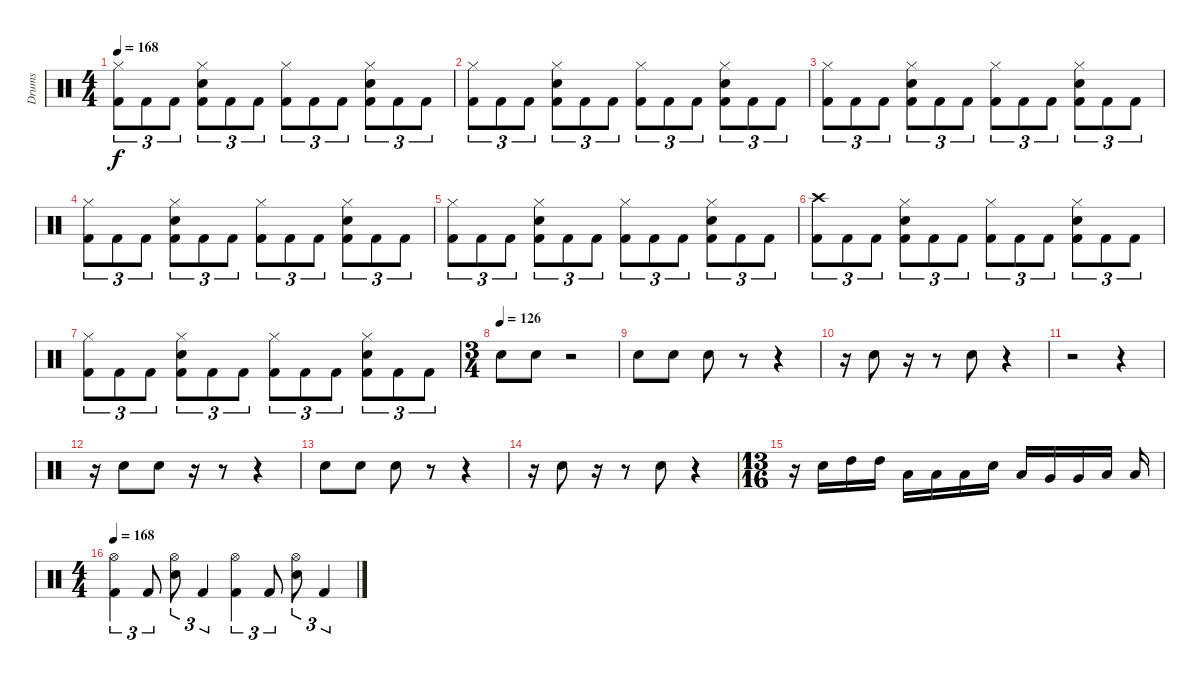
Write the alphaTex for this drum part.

\track ("Drums" "Drums") {instrument percussion}
\staff {score}
\articulation defaults
\ts (4 4)
\tempo 168
\clef neutral
\ks c
("Hi-Hat (closed)" "Kick (hit) 2").8{tu (3 2) dy f} "Kick (hit) 2".8{tu (3 2)} "Kick (hit) 2".8{tu (3 2)} ("Hi-Hat (closed)" "Electric Snare (hit)" "Kick (hit) 2").8{tu (3 2)} "Kick (hit) 2".8{tu (3 2)} "Kick (hit) 2".8{tu (3 2)} ("Hi-Hat (closed)" "Kick (hit) 2").8{tu (3 2)} "Kick (hit) 2".8{tu (3 2)} "Kick (hit) 2".8{tu (3 2)} ("Hi-Hat (closed)" "Electric Snare (hit)" "Kick (hit) 2").8{tu (3 2)} "Kick (hit) 2".8{tu (3 2)} "Kick (hit) 2".8{tu (3 2)} |
("Hi-Hat (closed)" "Kick (hit) 2").8{tu (3 2)} "Kick (hit) 2".8{tu (3 2)} "Kick (hit) 2".8{tu (3 2)} ("Hi-Hat (closed)" "Electric Snare (hit)" "Kick (hit) 2").8{tu (3 2)} "Kick (hit) 2".8{tu (3 2)} "Kick (hit) 2".8{tu (3 2)} ("Hi-Hat (closed)" "Kick (hit) 2").8{tu (3 2)} "Kick (hit) 2".8{tu (3 2)} "Kick (hit) 2".8{tu (3 2)} ("Hi-Hat (closed)" "Electric Snare (hit)" "Kick (hit) 2").8{tu (3 2)} "Kick (hit) 2".8{tu (3 2)} "Kick (hit) 2".8{tu (3 2)} |
("Hi-Hat (closed)" "Kick (hit) 2").8{tu (3 2)} "Kick (hit) 2".8{tu (3 2)} "Kick (hit) 2".8{tu (3 2)} ("Hi-Hat (closed)" "Electric Snare (hit)" "Kick (hit) 2").8{tu (3 2)} "Kick (hit) 2".8{tu (3 2)} "Kick (hit) 2".8{tu (3 2)} ("Hi-Hat (closed)" "Kick (hit) 2").8{tu (3 2)} "Kick (hit) 2".8{tu (3 2)} "Kick (hit) 2".8{tu (3 2)} ("Hi-Hat (closed)" "Electric Snare (hit)" "Kick (hit) 2").8{tu (3 2)} "Kick (hit) 2".8{tu (3 2)} "Kick (hit) 2".8{tu (3 2)} |
("Hi-Hat (closed)" "Kick (hit) 2").8{tu (3 2)} "Kick (hit) 2".8{tu (3 2)} "Kick (hit) 2".8{tu (3 2)} ("Hi-Hat (closed)" "Electric Snare (hit)" "Kick (hit) 2").8{tu (3 2)} "Kick (hit) 2".8{tu (3 2)} "Kick (hit) 2".8{tu (3 2)} ("Hi-Hat (closed)" "Kick (hit) 2").8{tu (3 2)} "Kick (hit) 2".8{tu (3 2)} "Kick (hit) 2".8{tu (3 2)} ("Hi-Hat (closed)" "Electric Snare (hit)" "Kick (hit) 2").8{tu (3 2)} "Kick (hit) 2".8{tu (3 2)} "Kick (hit) 2".8{tu (3 2)} |
("Hi-Hat (closed)" "Kick (hit) 2").8{tu (3 2)} "Kick (hit) 2".8{tu (3 2)} "Kick (hit) 2".8{tu (3 2)} ("Hi-Hat (closed)" "Electric Snare (hit)" "Kick (hit) 2").8{tu (3 2)} "Kick (hit) 2".8{tu (3 2)} "Kick (hit) 2".8{tu (3 2)} ("Hi-Hat (closed)" "Kick (hit) 2").8{tu (3 2)} "Kick (hit) 2".8{tu (3 2)} "Kick (hit) 2".8{tu (3 2)} ("Hi-Hat (closed)" "Electric Snare (hit)" "Kick (hit) 2").8{tu (3 2)} "Kick (hit) 2".8{tu (3 2)} "Kick (hit) 2".8{tu (3 2)} |
("Crash high (hit)" "Kick (hit) 2").8{tu (3 2)} "Kick (hit) 2".8{tu (3 2)} "Kick (hit) 2".8{tu (3 2)} ("Hi-Hat (closed)" "Electric Snare (hit)" "Kick (hit) 2").8{tu (3 2)} "Kick (hit) 2".8{tu (3 2)} "Kick (hit) 2".8{tu (3 2)} ("Hi-Hat (closed)" "Kick (hit) 2").8{tu (3 2)} "Kick (hit) 2".8{tu (3 2)} "Kick (hit) 2".8{tu (3 2)} ("Hi-Hat (closed)" "Electric Snare (hit)" "Kick (hit) 2").8{tu (3 2)} "Kick (hit) 2".8{tu (3 2)} "Kick (hit) 2".8{tu (3 2)} |
("Hi-Hat (closed)" "Kick (hit) 2").8{tu (3 2)} "Kick (hit) 2".8{tu (3 2)} "Kick (hit) 2".8{tu (3 2)} ("Hi-Hat (closed)" "Electric Snare (hit)" "Kick (hit) 2").8{tu (3 2)} "Kick (hit) 2".8{tu (3 2)} "Kick (hit) 2".8{tu (3 2)} ("Hi-Hat (closed)" "Kick (hit) 2").8{tu (3 2)} "Kick (hit) 2".8{tu (3 2)} "Kick (hit) 2".8{tu (3 2)} ("Hi-Hat (closed)" "Electric Snare (hit)" "Kick (hit) 2").8{tu (3 2)} "Kick (hit) 2".8{tu (3 2)} "Kick (hit) 2".8{tu (3 2)} |
\ts (3 4)
\tempo (126)
"Electric Snare (hit)".8 "Electric Snare (hit)".8 r.2 |
"Electric Snare (hit)".8 "Electric Snare (hit)".8 "Electric Snare (hit)".8 r.8 r.4 |
r.16 "Electric Snare (hit)".8 r.16 r.8 "Electric Snare (hit)".8 r.4 |
r.2 r.4 |
r.16 "Electric Snare (hit)".8 "Electric Snare (hit)".8 r.16 r.8 r.4 |
"Electric Snare (hit)".8 "Electric Snare (hit)".8 "Electric Snare (hit)".8 r.8 r.4 |
r.16 "Electric Snare (hit)".8 r.16 r.8 "Electric Snare (hit)".8 r.4 |
\ts (13 16)
r.16 "Electric Snare (hit)".16 "High Tom (hit)".16 "High Tom (hit)".16 "Low Tom (hit)".16 "Low Tom (hit)".16 "Low Tom (hit)".16 "Electric Snare (hit)".16 "Low Tom (hit)".16 "Very Low Tom (hit)".16 "Very Low Tom (hit)".16 "Low Floor Tom (hit)".16 "Low Floor Tom (hit)".16 |
\ts (4 4)
\tempo 168
("Hi-Hat (open)" "Kick (hit) 2").4{tu (3 2)} "Kick (hit) 2".8{tu (3 2)} ("Hi-Hat (open)" "Electric Snare (hit)").8{tu (3 2)} "Kick (hit) 2".4{tu (3 2)} ("Hi-Hat (open)" "Kick (hit) 2").4{tu (3 2)} "Kick (hit) 2".8{tu (3 2)} ("Hi-Hat (open)" "Electric Snare (hit)").8{tu (3 2)} "Kick (hit) 2".4{tu (3 2)}
